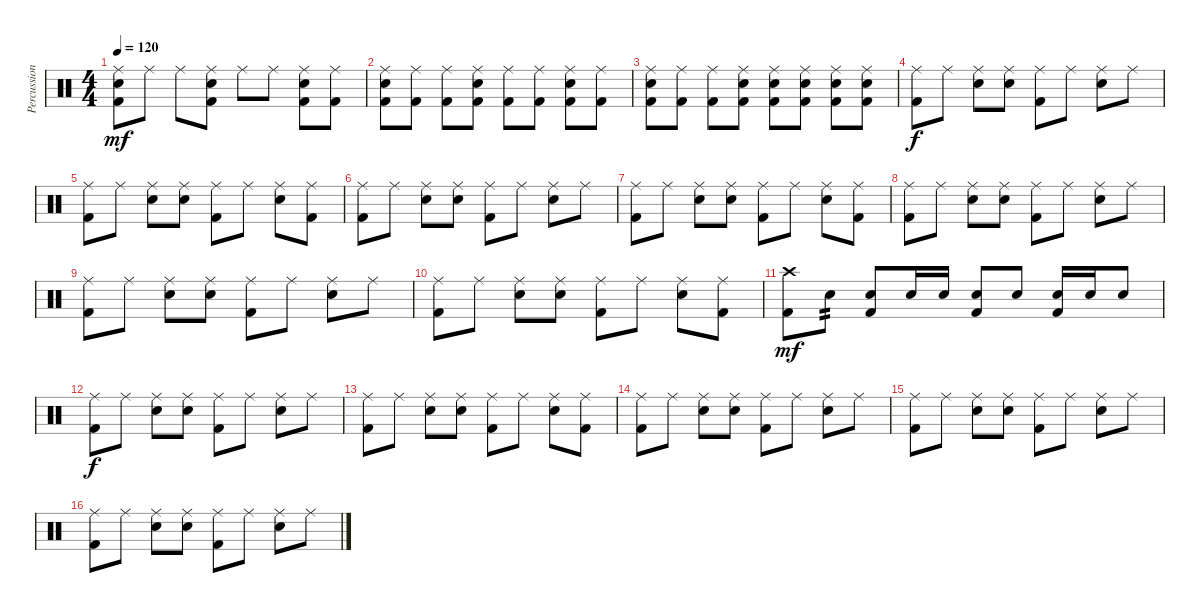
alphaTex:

\track ("Percussion" "Percussion") {instrument percussion}
\staff {score}
\articulation defaults
\ts (4 4)
\tempo 120
\clef neutral
\ks c
("Ride (middle)" "Kick (hit) 2" "Snare (hit) 2").8{dy mf} "Ride (middle)".8 "Ride (middle)".8 ("Ride (middle)" "Kick (hit) 2" "Snare (hit) 2").8 "Ride (middle)".8 "Ride (middle)".8 ("Ride (middle)" "Kick (hit) 2" "Snare (hit) 2").8 ("Ride (middle)" "Kick (hit) 2").8 |
("Ride (middle)" "Kick (hit) 2" "Snare (hit) 2").8 ("Ride (middle)" "Kick (hit) 2").8 ("Ride (middle)" "Kick (hit) 2").8 ("Ride (middle)" "Kick (hit) 2" "Snare (hit) 2").8 ("Ride (middle)" "Kick (hit) 2").8 ("Ride (middle)" "Kick (hit) 2").8 ("Ride (middle)" "Kick (hit) 2" "Snare (hit) 2").8 ("Ride (middle)" "Kick (hit) 2").8 |
("Ride (middle)" "Kick (hit) 2" "Snare (hit) 2").8 ("Ride (middle)" "Kick (hit) 2").8 ("Ride (middle)" "Kick (hit) 2").8 ("Ride (middle)" "Kick (hit) 2" "Snare (hit) 2").8 ("Ride (middle)" "Kick (hit) 2" "Snare (hit) 2").8 ("Ride (middle)" "Kick (hit) 2" "Snare (hit) 2").8 ("Ride (middle)" "Kick (hit) 2" "Snare (hit) 2").8 ("Ride (middle)" "Kick (hit) 2" "Snare (hit) 2").8 |
("Ride (middle)" "Kick (hit) 2").8{dy f} "Ride (middle)".8 ("Ride (middle)" "Snare (hit) 2").8 ("Ride (middle)" "Snare (hit) 2").8 ("Ride (middle)" "Kick (hit) 2").8 "Ride (middle)".8 ("Ride (middle)" "Snare (hit) 2").8 "Ride (middle)".8 |
("Ride (middle)" "Kick (hit) 2").8 "Ride (middle)".8 ("Ride (middle)" "Snare (hit) 2").8 ("Ride (middle)" "Snare (hit) 2").8 ("Ride (middle)" "Kick (hit) 2").8 "Ride (middle)".8 ("Ride (middle)" "Snare (hit) 2").8 ("Ride (middle)" "Kick (hit) 2").8 |
("Ride (middle)" "Kick (hit) 2").8 "Ride (middle)".8 ("Ride (middle)" "Snare (hit) 2").8 ("Ride (middle)" "Snare (hit) 2").8 ("Ride (middle)" "Kick (hit) 2").8 "Ride (middle)".8 ("Ride (middle)" "Snare (hit) 2").8 "Ride (middle)".8 |
("Ride (middle)" "Kick (hit) 2").8 "Ride (middle)".8 ("Ride (middle)" "Snare (hit) 2").8 ("Ride (middle)" "Snare (hit) 2").8 ("Ride (middle)" "Kick (hit) 2").8 "Ride (middle)".8 ("Ride (middle)" "Snare (hit) 2").8 ("Ride (middle)" "Kick (hit) 2").8 |
("Ride (middle)" "Kick (hit) 2").8 "Ride (middle)".8 ("Ride (middle)" "Snare (hit) 2").8 ("Ride (middle)" "Snare (hit) 2").8 ("Ride (middle)" "Kick (hit) 2").8 "Ride (middle)".8 ("Ride (middle)" "Snare (hit) 2").8 "Ride (middle)".8 |
("Ride (middle)" "Kick (hit) 2").8 "Ride (middle)".8 ("Ride (middle)" "Snare (hit) 2").8 ("Ride (middle)" "Snare (hit) 2").8 ("Ride (middle)" "Kick (hit) 2").8 "Ride (middle)".8 ("Ride (middle)" "Snare (hit) 2").8 "Ride (middle)".8 |
("Ride (middle)" "Kick (hit) 2").8 "Ride (middle)".8 ("Ride (middle)" "Snare (hit) 2").8 ("Ride (middle)" "Snare (hit) 2").8 ("Ride (middle)" "Kick (hit) 2").8 "Ride (middle)".8 ("Ride (middle)" "Snare (hit) 2").8 ("Ride (middle)" "Kick (hit) 2").8 |
("Crash high (hit)" "Kick (hit) 2").8{dy mf} "Snare (hit) 2".8{tp 2} ("Snare (hit) 2" "Kick (hit) 2").8 "Snare (hit) 2".16 "Snare (hit) 2".16 ("Snare (hit) 2" "Kick (hit) 2").8 "Snare (hit) 2".8 ("Snare (hit) 2" "Kick (hit) 2").16 "Snare (hit) 2".16 "Snare (hit) 2".8 |
("Ride (middle)" "Kick (hit) 2").8{dy f} "Ride (middle)".8 ("Ride (middle)" "Snare (hit) 2").8 ("Ride (middle)" "Snare (hit) 2").8 ("Ride (middle)" "Kick (hit) 2").8 "Ride (middle)".8 ("Ride (middle)" "Snare (hit) 2").8 "Ride (middle)".8 |
("Ride (middle)" "Kick (hit) 2").8 "Ride (middle)".8 ("Ride (middle)" "Snare (hit) 2").8 ("Ride (middle)" "Snare (hit) 2").8 ("Ride (middle)" "Kick (hit) 2").8 "Ride (middle)".8 ("Ride (middle)" "Snare (hit) 2").8 ("Ride (middle)" "Kick (hit) 2").8 |
("Ride (middle)" "Kick (hit) 2").8 "Ride (middle)".8 ("Ride (middle)" "Snare (hit) 2").8 ("Ride (middle)" "Snare (hit) 2").8 ("Ride (middle)" "Kick (hit) 2").8 "Ride (middle)".8 ("Ride (middle)" "Snare (hit) 2").8 "Ride (middle)".8 |
("Ride (middle)" "Kick (hit) 2").8 "Ride (middle)".8 ("Ride (middle)" "Snare (hit) 2").8 ("Ride (middle)" "Snare (hit) 2").8 ("Ride (middle)" "Kick (hit) 2").8 "Ride (middle)".8 ("Ride (middle)" "Snare (hit) 2").8 "Ride (middle)".8 |
("Ride (middle)" "Kick (hit) 2").8 "Ride (middle)".8 ("Ride (middle)" "Snare (hit) 2").8 ("Ride (middle)" "Snare (hit) 2").8 ("Ride (middle)" "Kick (hit) 2").8 "Ride (middle)".8 ("Ride (middle)" "Snare (hit) 2").8 "Ride (middle)".8
